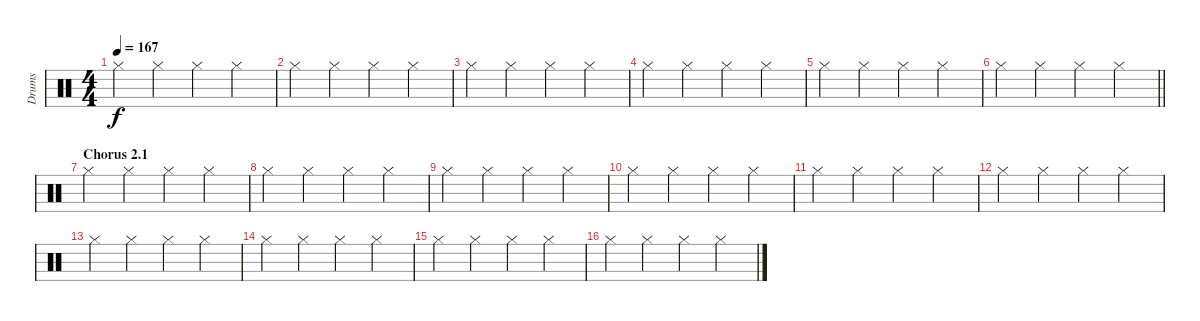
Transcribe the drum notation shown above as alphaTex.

\track ("Drums" "Drums") {instrument percussion}
\staff {score}
\articulation defaults
\ts (4 4)
\tempo 167
\clef neutral
\ks c "Hi-Hat (closed)".4{dy f} "Hi-Hat (closed)".4 "Hi-Hat (closed)".4 "Hi-Hat (closed)".4
|
"Hi-Hat (closed)".4 "Hi-Hat (closed)".4 "Hi-Hat (closed)".4 "Hi-Hat (closed)".4 |
"Hi-Hat (closed)".4 "Hi-Hat (closed)".4 "Hi-Hat (closed)".4 "Hi-Hat (closed)".4 |
"Hi-Hat (closed)".4 "Hi-Hat (closed)".4 "Hi-Hat (closed)".4 "Hi-Hat (closed)".4 |
"Hi-Hat (closed)".4 "Hi-Hat (closed)".4 "Hi-Hat (closed)".4 "Hi-Hat (closed)".4 |
\barLineRight lightlight "Hi-Hat (closed)".4 "Hi-Hat (closed)".4 "Hi-Hat (closed)".4 "Hi-Hat (closed)".4
|
\section ("" "Chorus 2.1")
"Hi-Hat (closed)".4 "Hi-Hat (closed)".4 "Hi-Hat (closed)".4 "Hi-Hat (closed)".4 |
"Hi-Hat (closed)".4 "Hi-Hat (closed)".4 "Hi-Hat (closed)".4 "Hi-Hat (closed)".4 |
"Hi-Hat (closed)".4 "Hi-Hat (closed)".4 "Hi-Hat (closed)".4 "Hi-Hat (closed)".4 |
"Hi-Hat (closed)".4 "Hi-Hat (closed)".4 "Hi-Hat (closed)".4 "Hi-Hat (closed)".4 |
"Hi-Hat (closed)".4 "Hi-Hat (closed)".4 "Hi-Hat (closed)".4 "Hi-Hat (closed)".4 |
"Hi-Hat (closed)".4 "Hi-Hat (closed)".4 "Hi-Hat (closed)".4 "Hi-Hat (closed)".4 |
"Hi-Hat (closed)".4 "Hi-Hat (closed)".4 "Hi-Hat (closed)".4 "Hi-Hat (closed)".4 |
"Hi-Hat (closed)".4 "Hi-Hat (closed)".4 "Hi-Hat (closed)".4 "Hi-Hat (closed)".4 |
"Hi-Hat (closed)".4 "Hi-Hat (closed)".4 "Hi-Hat (closed)".4 "Hi-Hat (closed)".4 |
"Hi-Hat (closed)".4 "Hi-Hat (closed)".4 "Hi-Hat (closed)".4 "Hi-Hat (closed)".4
